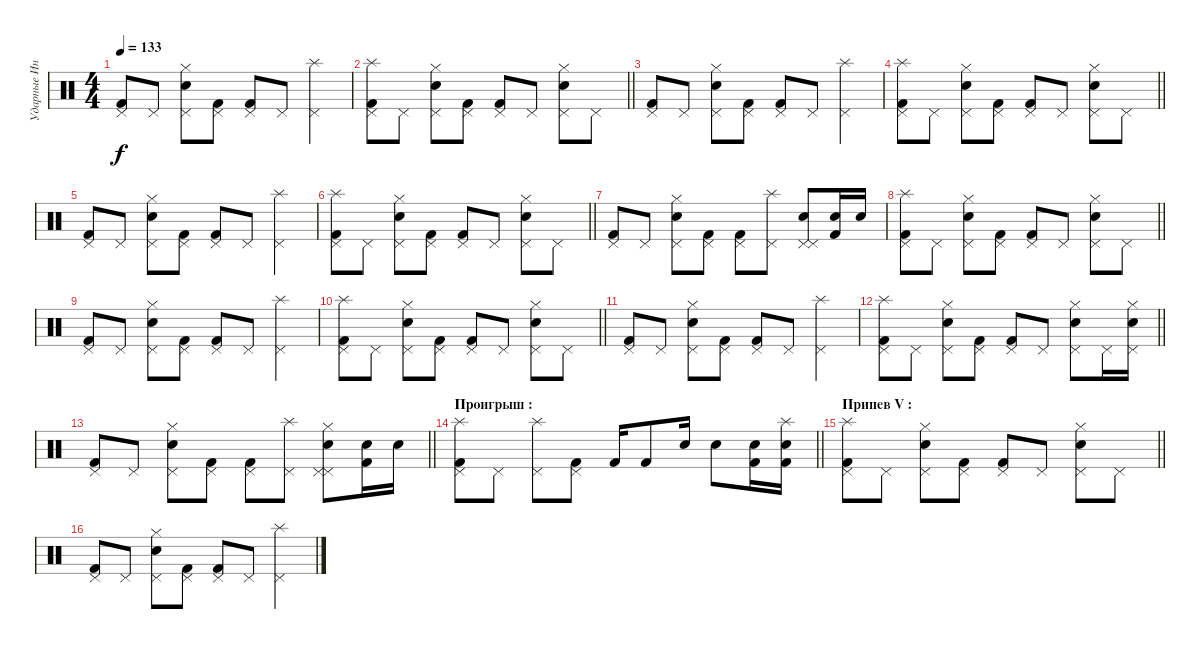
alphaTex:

\track ("Ударные Инструменты" "Ударные Ин") {instrument percussion}
\staff {score}
\articulation defaults
\ts (4 4)
\tempo 133
\clef neutral
\ks c
("Pedal Hi-Hat (hit)" "Kick (hit) 2").8{dy f} "Pedal Hi-Hat (hit)".8 ("Electric Snare (hit)" "Pedal Hi-Hat (hit)" "Hi-Hat (closed)").8 ("Pedal Hi-Hat (hit)" "Kick (hit) 2").8 ("Pedal Hi-Hat (hit)" "Kick (hit) 2").8 "Pedal Hi-Hat (hit)".8 ("Splash (hit)" "Pedal Hi-Hat (hit)").4 |
\barLineRight lightlight
("Splash (hit)" "Pedal Hi-Hat (hit)" "Kick (hit) 2").8 "Pedal Hi-Hat (hit)".8 ("Electric Snare (hit)" "Pedal Hi-Hat (hit)" "Hi-Hat (closed)").8 ("Pedal Hi-Hat (hit)" "Kick (hit) 2").8 ("Pedal Hi-Hat (hit)" "Kick (hit) 2").8 "Pedal Hi-Hat (hit)".8 ("Electric Snare (hit)" "Pedal Hi-Hat (hit)" "Hi-Hat (closed)").8 "Pedal Hi-Hat (hit)".8 |
("Pedal Hi-Hat (hit)" "Kick (hit) 2").8 "Pedal Hi-Hat (hit)".8 ("Electric Snare (hit)" "Pedal Hi-Hat (hit)" "Hi-Hat (closed)").8 ("Pedal Hi-Hat (hit)" "Kick (hit) 2").8 ("Pedal Hi-Hat (hit)" "Kick (hit) 2").8 "Pedal Hi-Hat (hit)".8 ("Splash (hit)" "Pedal Hi-Hat (hit)").4 |
\barLineRight lightlight
("Splash (hit)" "Pedal Hi-Hat (hit)" "Kick (hit) 2").8 "Pedal Hi-Hat (hit)".8 ("Electric Snare (hit)" "Pedal Hi-Hat (hit)" "Hi-Hat (closed)").8 ("Pedal Hi-Hat (hit)" "Kick (hit) 2").8 ("Pedal Hi-Hat (hit)" "Kick (hit) 2").8 "Pedal Hi-Hat (hit)".8 ("Electric Snare (hit)" "Pedal Hi-Hat (hit)" "Hi-Hat (closed)").8 "Pedal Hi-Hat (hit)".8 |
("Pedal Hi-Hat (hit)" "Kick (hit) 2").8 "Pedal Hi-Hat (hit)".8 ("Electric Snare (hit)" "Pedal Hi-Hat (hit)" "Hi-Hat (closed)").8 ("Pedal Hi-Hat (hit)" "Kick (hit) 2").8 ("Pedal Hi-Hat (hit)" "Kick (hit) 2").8 "Pedal Hi-Hat (hit)".8 ("Splash (hit)" "Pedal Hi-Hat (hit)").4 |
\barLineRight lightlight
("Splash (hit)" "Pedal Hi-Hat (hit)" "Kick (hit) 2").8 "Pedal Hi-Hat (hit)".8 ("Electric Snare (hit)" "Pedal Hi-Hat (hit)" "Hi-Hat (closed)").8 ("Pedal Hi-Hat (hit)" "Kick (hit) 2").8 ("Pedal Hi-Hat (hit)" "Kick (hit) 2").8 "Pedal Hi-Hat (hit)".8 ("Electric Snare (hit)" "Pedal Hi-Hat (hit)" "Hi-Hat (closed)").8 "Pedal Hi-Hat (hit)".8 |
("Pedal Hi-Hat (hit)" "Kick (hit) 2").8 "Pedal Hi-Hat (hit)".8 ("Electric Snare (hit)" "Pedal Hi-Hat (hit)" "Hi-Hat (closed)").8 ("Pedal Hi-Hat (hit)" "Kick (hit) 2").8 ("Pedal Hi-Hat (hit)" "Kick (hit) 2").8 ("Splash (hit)" "Pedal Hi-Hat (hit)").8 ("Electric Snare (hit)" "Pedal Hi-Hat (hit)" "Pedal Hi-Hat (hit)").8 ("Snare (hit) 2" "Kick (hit) 2").16 "Snare (hit) 2".16 |
\barLineRight lightlight
("Splash (hit)" "Pedal Hi-Hat (hit)" "Kick (hit) 2").8 "Pedal Hi-Hat (hit)".8 ("Electric Snare (hit)" "Pedal Hi-Hat (hit)" "Hi-Hat (closed)").8 ("Pedal Hi-Hat (hit)" "Kick (hit) 2").8 ("Pedal Hi-Hat (hit)" "Kick (hit) 2").8 "Pedal Hi-Hat (hit)".8 ("Electric Snare (hit)" "Pedal Hi-Hat (hit)" "Hi-Hat (closed)").8 "Pedal Hi-Hat (hit)".8 |
("Pedal Hi-Hat (hit)" "Kick (hit) 2").8 "Pedal Hi-Hat (hit)".8 ("Electric Snare (hit)" "Pedal Hi-Hat (hit)" "Hi-Hat (closed)").8 ("Pedal Hi-Hat (hit)" "Kick (hit) 2").8 ("Pedal Hi-Hat (hit)" "Kick (hit) 2").8 "Pedal Hi-Hat (hit)".8 ("Splash (hit)" "Pedal Hi-Hat (hit)").4 |
\barLineRight lightlight
("Splash (hit)" "Pedal Hi-Hat (hit)" "Kick (hit) 2").8 "Pedal Hi-Hat (hit)".8 ("Electric Snare (hit)" "Pedal Hi-Hat (hit)" "Hi-Hat (closed)").8 ("Pedal Hi-Hat (hit)" "Kick (hit) 2").8 ("Pedal Hi-Hat (hit)" "Kick (hit) 2").8 "Pedal Hi-Hat (hit)".8 ("Electric Snare (hit)" "Pedal Hi-Hat (hit)" "Hi-Hat (closed)").8 "Pedal Hi-Hat (hit)".8 |
("Pedal Hi-Hat (hit)" "Kick (hit) 2").8 "Pedal Hi-Hat (hit)".8 ("Electric Snare (hit)" "Pedal Hi-Hat (hit)" "Hi-Hat (closed)").8 ("Pedal Hi-Hat (hit)" "Kick (hit) 2").8 ("Pedal Hi-Hat (hit)" "Kick (hit) 2").8 "Pedal Hi-Hat (hit)".8 ("Splash (hit)" "Pedal Hi-Hat (hit)").4 |
\barLineRight lightlight
("Splash (hit)" "Pedal Hi-Hat (hit)" "Kick (hit) 2").8 "Pedal Hi-Hat (hit)".8 ("Electric Snare (hit)" "Pedal Hi-Hat (hit)" "Hi-Hat (closed)").8 ("Pedal Hi-Hat (hit)" "Kick (hit) 2").8 ("Pedal Hi-Hat (hit)" "Kick (hit) 2").8 "Pedal Hi-Hat (hit)".8 ("Electric Snare (hit)" "Pedal Hi-Hat (hit)" "Hi-Hat (closed)").8 "Pedal Hi-Hat (hit)".16 ("Electric Snare (hit)" "Pedal Hi-Hat (hit)" "Hi-Hat (closed)").16 |
\barLineRight lightlight
("Pedal Hi-Hat (hit)" "Kick (hit) 2").8 "Pedal Hi-Hat (hit)".8 ("Electric Snare (hit)" "Pedal Hi-Hat (hit)" "Hi-Hat (closed)").8 ("Pedal Hi-Hat (hit)" "Kick (hit) 2").8 ("Pedal Hi-Hat (hit)" "Kick (hit) 2").8 ("Splash (hit)" "Pedal Hi-Hat (hit)").8 ("Electric Snare (hit)" "Pedal Hi-Hat (hit)" "Hi-Hat (closed)" "Pedal Hi-Hat (hit)").8 ("Snare (hit) 2" "Kick (hit) 2").16 "Snare (hit) 2".16 |
\section ("" "Проигрыш :")
\barLineRight lightlight
("Splash (hit)" "Pedal Hi-Hat (hit)" "Kick (hit) 2").8 "Pedal Hi-Hat (hit)".8 ("Splash (hit)" "Pedal Hi-Hat (hit)").8 ("Pedal Hi-Hat (hit)" "Kick (hit) 2").8 "Kick (hit) 2".16 "Kick (hit) 2".8 "Snare (hit) 2".16 "Snare (hit) 2".8 ("Electric Snare (hit)" "Kick (hit) 2").16 ("Splash (hit)" "Electric Snare (hit)" "Kick (hit) 2").16 |
\section ("" "Припев V :")
\barLineRight lightlight
("Splash (hit)" "Pedal Hi-Hat (hit)" "Kick (hit) 2").8 "Pedal Hi-Hat (hit)".8 ("Electric Snare (hit)" "Pedal Hi-Hat (hit)" "Hi-Hat (closed)").8 ("Pedal Hi-Hat (hit)" "Kick (hit) 2").8 ("Pedal Hi-Hat (hit)" "Kick (hit) 2").8 "Pedal Hi-Hat (hit)".8 ("Electric Snare (hit)" "Pedal Hi-Hat (hit)" "Hi-Hat (closed)").8 "Pedal Hi-Hat (hit)".8 |
("Pedal Hi-Hat (hit)" "Kick (hit) 2").8 "Pedal Hi-Hat (hit)".8 ("Electric Snare (hit)" "Pedal Hi-Hat (hit)" "Hi-Hat (closed)").8 ("Pedal Hi-Hat (hit)" "Kick (hit) 2").8 ("Pedal Hi-Hat (hit)" "Kick (hit) 2").8 "Pedal Hi-Hat (hit)".8 ("Splash (hit)" "Pedal Hi-Hat (hit)").4
